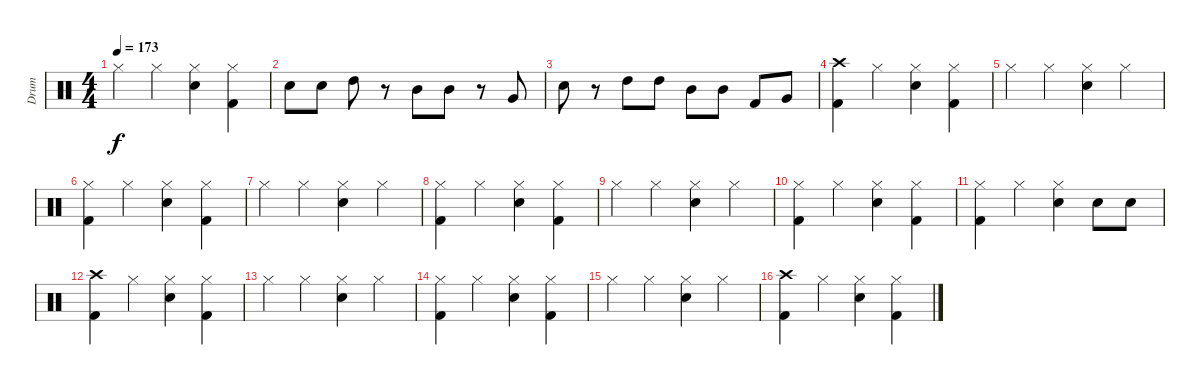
\track ("Drum" "Drum") {instrument percussion}
\staff {score}
\articulation defaults
\ts (4 4)
\tempo 173
\clef neutral
\ks c "Hi-Hat (closed)".4{dy f} "Hi-Hat (closed)".4
("Hi-Hat (closed)" "Electric Snare (hit)").4 ("Hi-Hat (closed)" "Kick (hit) 2").4 |
"Electric Snare (hit)".8 "Electric Snare (hit)".8 "High Tom (hit)".8 r.8 "Mid Tom (hit)".8 "Mid Tom (hit)".8 r.8 "Very Low Tom (hit)".8 |
"Electric Snare (hit)".8 r.8 "High Tom (hit)".8 "High Tom (hit)".8 "Mid Tom (hit)".8 "Mid Tom (hit)".8 "Kick (hit) 2".8 "Very Low Tom (hit)".8 |
("Crash high (hit)" "Kick (hit) 2").4 "Hi-Hat (closed)".4 ("Hi-Hat (closed)" "Electric Snare (hit)").4 ("Hi-Hat (closed)" "Kick (hit) 2").4 |
"Hi-Hat (closed)".4 "Hi-Hat (closed)".4 ("Hi-Hat (closed)" "Electric Snare (hit)").4 "Hi-Hat (closed)".4 |
("Hi-Hat (closed)" "Kick (hit) 2").4 "Hi-Hat (closed)".4 ("Hi-Hat (closed)" "Electric Snare (hit)").4 ("Hi-Hat (closed)" "Kick (hit) 2").4 |
"Hi-Hat (closed)".4 "Hi-Hat (closed)".4 ("Hi-Hat (closed)" "Electric Snare (hit)").4 "Hi-Hat (closed)".4 |
("Hi-Hat (closed)" "Kick (hit) 2").4 "Hi-Hat (closed)".4 ("Hi-Hat (closed)" "Electric Snare (hit)").4 ("Hi-Hat (closed)" "Kick (hit) 2").4 |
"Hi-Hat (closed)".4 "Hi-Hat (closed)".4 ("Hi-Hat (closed)" "Electric Snare (hit)").4 "Hi-Hat (closed)".4 |
("Hi-Hat (closed)" "Kick (hit) 2").4 "Hi-Hat (closed)".4 ("Hi-Hat (closed)" "Electric Snare (hit)").4 ("Hi-Hat (closed)" "Kick (hit) 2").4 |
("Hi-Hat (closed)" "Kick (hit) 2").4 "Hi-Hat (closed)".4 ("Hi-Hat (closed)" "Electric Snare (hit)").4 "Electric Snare (hit)".8 "Electric Snare (hit)".8 |
("Crash high (hit)" "Kick (hit) 2").4 "Hi-Hat (closed)".4 ("Hi-Hat (closed)" "Electric Snare (hit)").4 ("Hi-Hat (closed)" "Kick (hit) 2").4 |
"Hi-Hat (closed)".4 "Hi-Hat (closed)".4 ("Hi-Hat (closed)" "Electric Snare (hit)").4 "Hi-Hat (closed)".4 |
("Hi-Hat (closed)" "Kick (hit) 2").4 "Hi-Hat (closed)".4 ("Hi-Hat (closed)" "Electric Snare (hit)").4 ("Hi-Hat (closed)" "Kick (hit) 2").4 |
"Hi-Hat (closed)".4 "Hi-Hat (closed)".4 ("Hi-Hat (closed)" "Electric Snare (hit)").4 "Hi-Hat (closed)".4 |
("Crash high (hit)" "Kick (hit) 2").4 "Hi-Hat (closed)".4 ("Hi-Hat (closed)" "Electric Snare (hit)").4 ("Hi-Hat (closed)" "Kick (hit) 2").4
